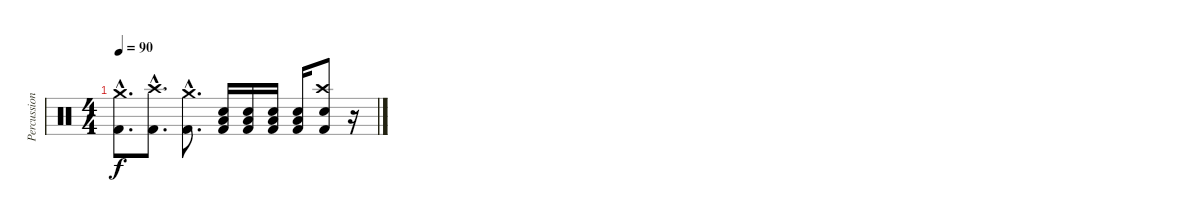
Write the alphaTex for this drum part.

\track ("Percussion" "Percussion") {instrument percussion}
\staff {score}
\articulation defaults
\ts (4 4)
\tempo 90
\clef neutral
\ks c
("Crash medium (hit)"{hac} "Kick (hit) 2"{hac}).8{d dy f} ("Crash high (hit)"{hac} "Kick (hit) 2"{hac}).8{d} ("Crash medium (hit)"{hac} "Kick (hit) 2"{hac}).8{d} ("Kick (hit) 2" "Electric Snare (hit)" "Low Floor Tom (hit)").16 ("Kick (hit) 2" "Electric Snare (hit)" "Low Floor Tom (hit)").16 ("Kick (hit) 2" "Electric Snare (hit)" "Low Floor Tom (hit)").16 ("Kick (hit) 2" "Electric Snare (hit)" "Low Floor Tom (hit)").16 ("Crash high (hit)" "Kick (hit) 2" "Electric Snare (hit)").8 r.16
